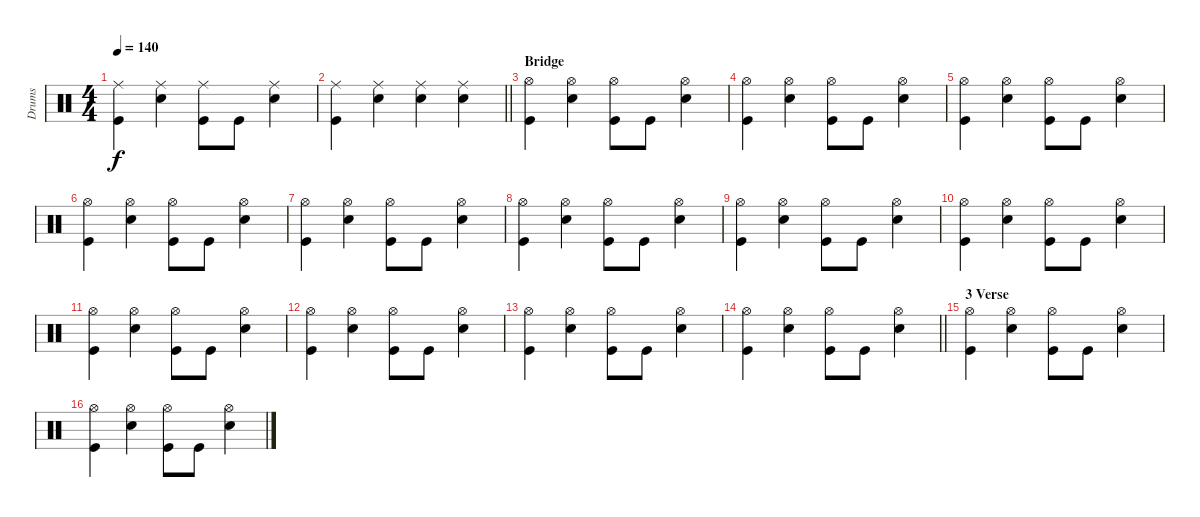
\track ("Drums" "Drums") {instrument percussion}
\staff
\articulation defaults
\ts (4 4)
\tempo 140
\clef neutral
\ks c
("Kick (hit)" "Ride (middle)").4{dy f} ("Snare (hit) 2" "Ride (middle)").4 ("Kick (hit)" "Ride (middle)").8 "Kick (hit)".8 ("Snare (hit) 2" "Ride (middle)").4 |
\barLineRight lightlight
("Kick (hit)" "Ride (middle)").4 ("Snare (hit) 2" "Ride (middle)").4 ("Snare (hit) 2" "Ride (middle)").4 ("Snare (hit) 2" "Ride (middle)").4 |
\section ("" "Bridge")
("Kick (hit)" "Hi-Hat (open)").4 ("Snare (hit) 2" "Hi-Hat (open)").4 ("Kick (hit)" "Hi-Hat (open)").8 "Kick (hit)".8 ("Snare (hit) 2" "Hi-Hat (open)").4 |
("Kick (hit)" "Hi-Hat (open)").4 ("Snare (hit) 2" "Hi-Hat (open)").4 ("Kick (hit)" "Hi-Hat (open)").8 "Kick (hit)".8 ("Snare (hit) 2" "Hi-Hat (open)").4 |
("Kick (hit)" "Hi-Hat (open)").4 ("Snare (hit) 2" "Hi-Hat (open)").4 ("Kick (hit)" "Hi-Hat (open)").8 "Kick (hit)".8 ("Snare (hit) 2" "Hi-Hat (open)").4 |
("Kick (hit)" "Hi-Hat (open)").4 ("Snare (hit) 2" "Hi-Hat (open)").4 ("Kick (hit)" "Hi-Hat (open)").8 "Kick (hit)".8 ("Snare (hit) 2" "Hi-Hat (open)").4 |
("Kick (hit)" "Hi-Hat (open)").4 ("Snare (hit) 2" "Hi-Hat (open)").4 ("Kick (hit)" "Hi-Hat (open)").8 "Kick (hit)".8 ("Snare (hit) 2" "Hi-Hat (open)").4 |
("Kick (hit)" "Hi-Hat (open)").4 ("Snare (hit) 2" "Hi-Hat (open)").4 ("Kick (hit)" "Hi-Hat (open)").8 "Kick (hit)".8 ("Snare (hit) 2" "Hi-Hat (open)").4 |
("Kick (hit)" "Hi-Hat (open)").4 ("Snare (hit) 2" "Hi-Hat (open)").4 ("Kick (hit)" "Hi-Hat (open)").8 "Kick (hit)".8 ("Snare (hit) 2" "Hi-Hat (open)").4 |
("Kick (hit)" "Hi-Hat (open)").4 ("Snare (hit) 2" "Hi-Hat (open)").4 ("Kick (hit)" "Hi-Hat (open)").8 "Kick (hit)".8 ("Snare (hit) 2" "Hi-Hat (open)").4 |
("Kick (hit)" "Hi-Hat (open)").4 ("Snare (hit) 2" "Hi-Hat (open)").4 ("Kick (hit)" "Hi-Hat (open)").8 "Kick (hit)".8 ("Snare (hit) 2" "Hi-Hat (open)").4 |
("Kick (hit)" "Hi-Hat (open)").4 ("Snare (hit) 2" "Hi-Hat (open)").4 ("Kick (hit)" "Hi-Hat (open)").8 "Kick (hit)".8 ("Snare (hit) 2" "Hi-Hat (open)").4 |
("Kick (hit)" "Hi-Hat (open)").4 ("Snare (hit) 2" "Hi-Hat (open)").4 ("Kick (hit)" "Hi-Hat (open)").8 "Kick (hit)".8 ("Snare (hit) 2" "Hi-Hat (open)").4 |
\barLineRight lightlight
("Kick (hit)" "Hi-Hat (open)").4 ("Snare (hit) 2" "Hi-Hat (open)").4 ("Kick (hit)" "Hi-Hat (open)").8 "Kick (hit)".8 ("Snare (hit) 2" "Hi-Hat (open)").4 |
\section ("" "3 Verse")
("Kick (hit)" "Hi-Hat (open)").4 ("Snare (hit) 2" "Hi-Hat (open)").4 ("Kick (hit)" "Hi-Hat (open)").8 "Kick (hit)".8 ("Snare (hit) 2" "Hi-Hat (open)").4 |
("Kick (hit)" "Hi-Hat (open)").4 ("Snare (hit) 2" "Hi-Hat (open)").4 ("Kick (hit)" "Hi-Hat (open)").8 "Kick (hit)".8 ("Snare (hit) 2" "Hi-Hat (open)").4
